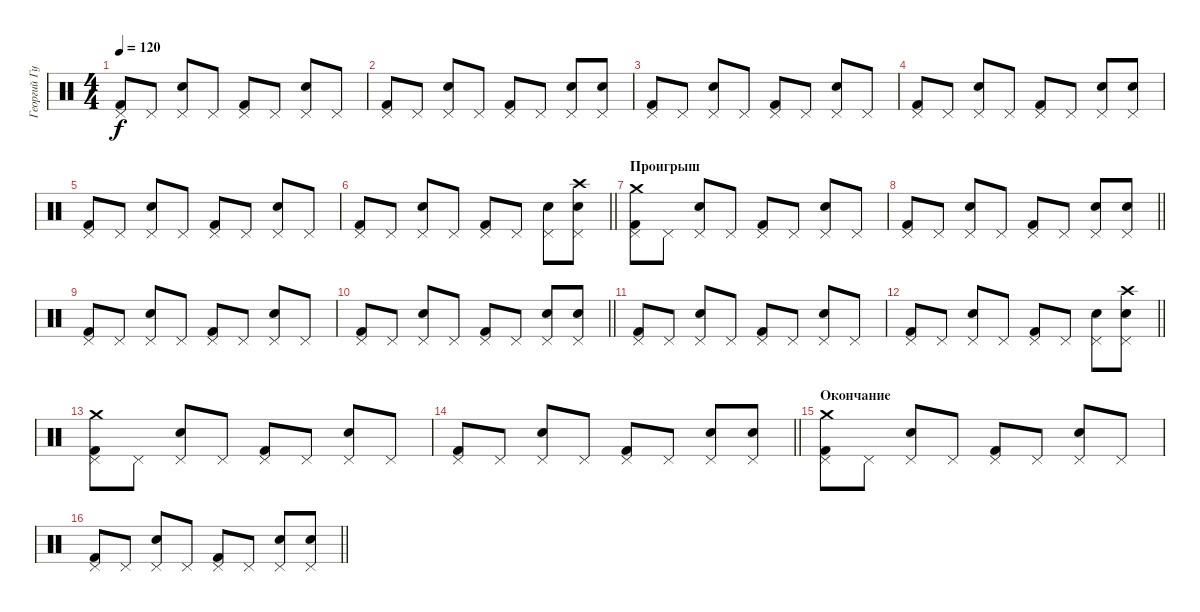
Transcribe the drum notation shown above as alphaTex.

\track ("Георгий Гурьянов" "Георгий Гу") {instrument percussion}
\staff {score}
\articulation defaults
\ts (4 4)
\tempo 120
\clef neutral
\ks c
("Pedal Hi-Hat (hit)" "Kick (hit) 2").8{dy f} "Pedal Hi-Hat (hit)".8 ("Pedal Hi-Hat (hit)" "Snare (hit) 2").8 "Pedal Hi-Hat (hit)".8 ("Pedal Hi-Hat (hit)" "Kick (hit) 2").8 "Pedal Hi-Hat (hit)".8 ("Pedal Hi-Hat (hit)" "Snare (hit) 2").8 "Pedal Hi-Hat (hit)".8 |
("Pedal Hi-Hat (hit)" "Kick (hit) 2").8 "Pedal Hi-Hat (hit)".8 ("Pedal Hi-Hat (hit)" "Snare (hit) 2").8 "Pedal Hi-Hat (hit)".8 ("Pedal Hi-Hat (hit)" "Kick (hit) 2").8 "Pedal Hi-Hat (hit)".8 ("Pedal Hi-Hat (hit)" "Snare (hit) 2").8 ("Pedal Hi-Hat (hit)" "Snare (hit) 2").8 |
("Pedal Hi-Hat (hit)" "Kick (hit) 2").8 "Pedal Hi-Hat (hit)".8 ("Pedal Hi-Hat (hit)" "Snare (hit) 2").8 "Pedal Hi-Hat (hit)".8 ("Pedal Hi-Hat (hit)" "Kick (hit) 2").8 "Pedal Hi-Hat (hit)".8 ("Pedal Hi-Hat (hit)" "Snare (hit) 2").8 "Pedal Hi-Hat (hit)".8 |
("Pedal Hi-Hat (hit)" "Kick (hit) 2").8 "Pedal Hi-Hat (hit)".8 ("Pedal Hi-Hat (hit)" "Snare (hit) 2").8 "Pedal Hi-Hat (hit)".8 ("Pedal Hi-Hat (hit)" "Kick (hit) 2").8 "Pedal Hi-Hat (hit)".8 ("Pedal Hi-Hat (hit)" "Snare (hit) 2").8 ("Pedal Hi-Hat (hit)" "Snare (hit) 2").8 |
("Pedal Hi-Hat (hit)" "Kick (hit) 2").8 "Pedal Hi-Hat (hit)".8 ("Pedal Hi-Hat (hit)" "Snare (hit) 2").8 "Pedal Hi-Hat (hit)".8 ("Pedal Hi-Hat (hit)" "Kick (hit) 2").8 "Pedal Hi-Hat (hit)".8 ("Pedal Hi-Hat (hit)" "Snare (hit) 2").8 "Pedal Hi-Hat (hit)".8 |
\barLineRight lightlight
("Pedal Hi-Hat (hit)" "Kick (hit) 2").8 "Pedal Hi-Hat (hit)".8 ("Pedal Hi-Hat (hit)" "Snare (hit) 2").8 "Pedal Hi-Hat (hit)".8 ("Pedal Hi-Hat (hit)" "Kick (hit) 2").8 "Pedal Hi-Hat (hit)".8 ("Pedal Hi-Hat (hit)" "Snare (hit) 2").8 ("Pedal Hi-Hat (hit)" "Snare (hit) 2" "Crash high (hit)").8 |
\section ("" "Проигрыш")
("Pedal Hi-Hat (hit)" "Kick (hit) 2" "Crash medium (hit)").8 "Pedal Hi-Hat (hit)".8 ("Pedal Hi-Hat (hit)" "Snare (hit) 2").8 "Pedal Hi-Hat (hit)".8 ("Pedal Hi-Hat (hit)" "Kick (hit) 2").8 "Pedal Hi-Hat (hit)".8 ("Pedal Hi-Hat (hit)" "Snare (hit) 2").8 "Pedal Hi-Hat (hit)".8 |
\barLineRight lightlight
("Pedal Hi-Hat (hit)" "Kick (hit) 2").8 "Pedal Hi-Hat (hit)".8 ("Pedal Hi-Hat (hit)" "Snare (hit) 2").8 "Pedal Hi-Hat (hit)".8 ("Pedal Hi-Hat (hit)" "Kick (hit) 2").8 "Pedal Hi-Hat (hit)".8 ("Pedal Hi-Hat (hit)" "Snare (hit) 2").8 ("Pedal Hi-Hat (hit)" "Snare (hit) 2").8 |
("Pedal Hi-Hat (hit)" "Kick (hit) 2").8 "Pedal Hi-Hat (hit)".8 ("Pedal Hi-Hat (hit)" "Snare (hit) 2").8 "Pedal Hi-Hat (hit)".8 ("Pedal Hi-Hat (hit)" "Kick (hit) 2").8 "Pedal Hi-Hat (hit)".8 ("Pedal Hi-Hat (hit)" "Snare (hit) 2").8 "Pedal Hi-Hat (hit)".8 |
\barLineRight lightlight
("Pedal Hi-Hat (hit)" "Kick (hit) 2").8 "Pedal Hi-Hat (hit)".8 ("Pedal Hi-Hat (hit)" "Snare (hit) 2").8 "Pedal Hi-Hat (hit)".8 ("Pedal Hi-Hat (hit)" "Kick (hit) 2").8 "Pedal Hi-Hat (hit)".8 ("Pedal Hi-Hat (hit)" "Snare (hit) 2").8 ("Pedal Hi-Hat (hit)" "Snare (hit) 2").8 |
("Pedal Hi-Hat (hit)" "Kick (hit) 2").8 "Pedal Hi-Hat (hit)".8 ("Pedal Hi-Hat (hit)" "Snare (hit) 2").8 "Pedal Hi-Hat (hit)".8 ("Pedal Hi-Hat (hit)" "Kick (hit) 2").8 "Pedal Hi-Hat (hit)".8 ("Pedal Hi-Hat (hit)" "Snare (hit) 2").8 "Pedal Hi-Hat (hit)".8 |
\barLineRight lightlight
("Pedal Hi-Hat (hit)" "Kick (hit) 2").8 "Pedal Hi-Hat (hit)".8 ("Pedal Hi-Hat (hit)" "Snare (hit) 2").8 "Pedal Hi-Hat (hit)".8 ("Pedal Hi-Hat (hit)" "Kick (hit) 2").8 "Pedal Hi-Hat (hit)".8 ("Pedal Hi-Hat (hit)" "Snare (hit) 2").8 ("Pedal Hi-Hat (hit)" "Snare (hit) 2" "Crash high (hit)").8 |
("Pedal Hi-Hat (hit)" "Kick (hit) 2" "Crash medium (hit)").8 "Pedal Hi-Hat (hit)".8 ("Pedal Hi-Hat (hit)" "Snare (hit) 2").8 "Pedal Hi-Hat (hit)".8 ("Pedal Hi-Hat (hit)" "Kick (hit) 2").8 "Pedal Hi-Hat (hit)".8 ("Pedal Hi-Hat (hit)" "Snare (hit) 2").8 "Pedal Hi-Hat (hit)".8 |
\barLineRight lightlight
("Pedal Hi-Hat (hit)" "Kick (hit) 2").8 "Pedal Hi-Hat (hit)".8 ("Pedal Hi-Hat (hit)" "Snare (hit) 2").8 "Pedal Hi-Hat (hit)".8 ("Pedal Hi-Hat (hit)" "Kick (hit) 2").8 "Pedal Hi-Hat (hit)".8 ("Pedal Hi-Hat (hit)" "Snare (hit) 2").8 ("Pedal Hi-Hat (hit)" "Snare (hit) 2").8 |
\section ("" "Окончание")
("Pedal Hi-Hat (hit)" "Kick (hit) 2" "Crash medium (hit)").8 "Pedal Hi-Hat (hit)".8 ("Pedal Hi-Hat (hit)" "Snare (hit) 2").8 "Pedal Hi-Hat (hit)".8 ("Pedal Hi-Hat (hit)" "Kick (hit) 2").8 "Pedal Hi-Hat (hit)".8 ("Pedal Hi-Hat (hit)" "Snare (hit) 2").8 "Pedal Hi-Hat (hit)".8 |
\barLineRight lightlight
("Pedal Hi-Hat (hit)" "Kick (hit) 2").8 "Pedal Hi-Hat (hit)".8 ("Pedal Hi-Hat (hit)" "Snare (hit) 2").8 "Pedal Hi-Hat (hit)".8 ("Pedal Hi-Hat (hit)" "Kick (hit) 2").8 "Pedal Hi-Hat (hit)".8 ("Pedal Hi-Hat (hit)" "Snare (hit) 2").8 ("Pedal Hi-Hat (hit)" "Snare (hit) 2").8
